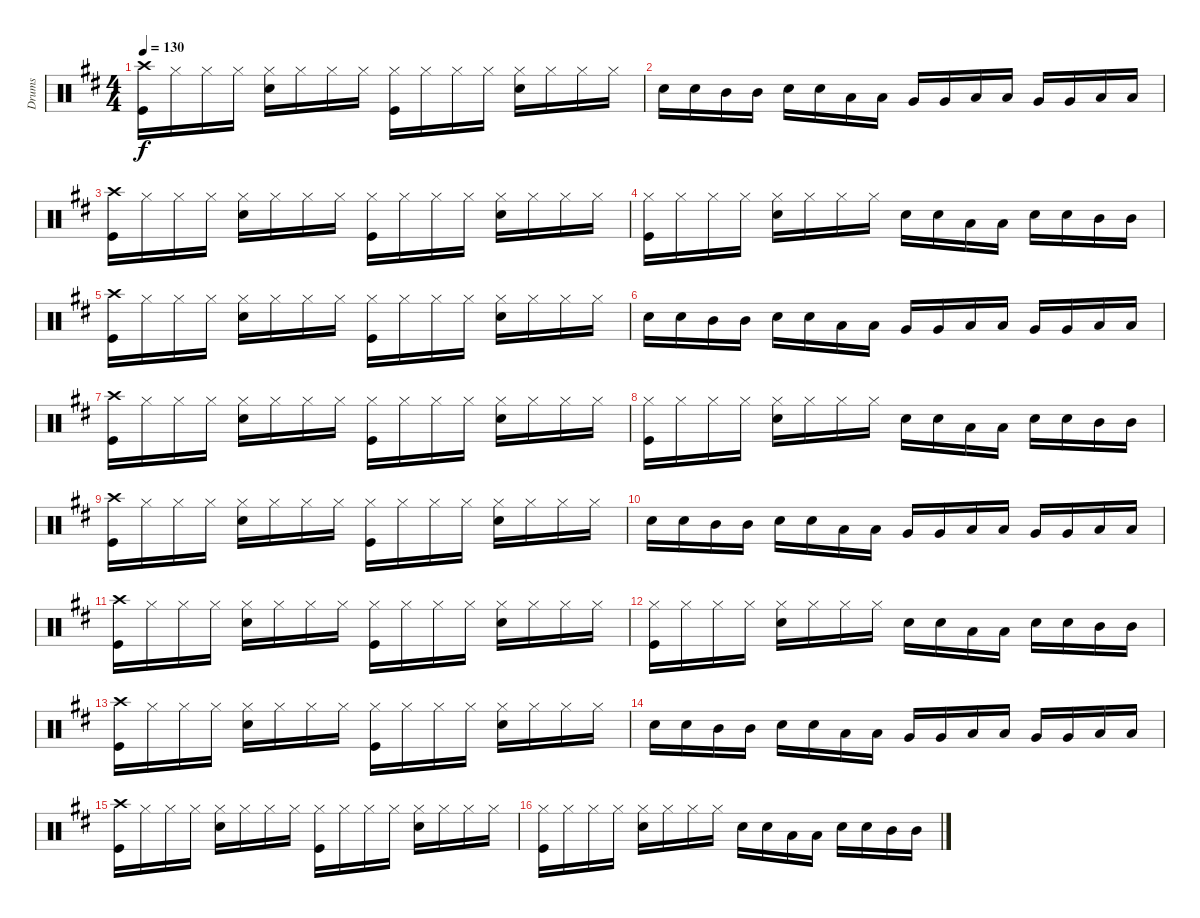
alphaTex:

\track ("Drums" "Drums") {instrument percussion}
\staff {score}
\articulation defaults
\ts (4 4)
\tempo 130
\clef neutral
\ks d
("Crash high (hit)" "Kick (hit)").16{dy f} "Hi-Hat (closed)".16 "Hi-Hat (closed)".16 "Hi-Hat (closed)".16 ("Hi-Hat (closed)" "Snare (hit) 2").16 "Hi-Hat (closed)".16 "Hi-Hat (closed)".16 "Hi-Hat (closed)".16 ("Hi-Hat (closed)" "Kick (hit)").16 "Hi-Hat (closed)".16 "Hi-Hat (closed)".16 "Hi-Hat (closed)".16 ("Hi-Hat (closed)" "Snare (hit) 2").16 "Hi-Hat (closed)".16 "Hi-Hat (closed)".16 "Hi-Hat (closed)".16 |
"Snare (hit) 2".16 "Snare (hit) 2".16 "Mid Tom (hit)".16 "Mid Tom (hit)".16 "Snare (hit) 2".16 "Snare (hit) 2".16 "Low Tom (hit)".16 "Low Tom (hit)".16 "Very Low Tom (hit)".16 "Very Low Tom (hit)".16 "Low Floor Tom (hit)".16 "Low Floor Tom (hit)".16 "Very Low Tom (hit)".16 "Very Low Tom (hit)".16 "Low Floor Tom (hit)".16 "Low Floor Tom (hit)".16 |
("Crash high (hit)" "Kick (hit)").16 "Hi-Hat (closed)".16 "Hi-Hat (closed)".16 "Hi-Hat (closed)".16 ("Hi-Hat (closed)" "Snare (hit) 2").16 "Hi-Hat (closed)".16 "Hi-Hat (closed)".16 "Hi-Hat (closed)".16 ("Hi-Hat (closed)" "Kick (hit)").16 "Hi-Hat (closed)".16 "Hi-Hat (closed)".16 "Hi-Hat (closed)".16 ("Hi-Hat (closed)" "Snare (hit) 2").16 "Hi-Hat (closed)".16 "Hi-Hat (closed)".16 "Hi-Hat (closed)".16 |
("Hi-Hat (closed)" "Kick (hit)").16 "Hi-Hat (closed)".16 "Hi-Hat (closed)".16 "Hi-Hat (closed)".16 ("Hi-Hat (closed)" "Snare (hit) 2").16 "Hi-Hat (closed)".16 "Hi-Hat (closed)".16 "Hi-Hat (closed)".16 "Snare (hit) 2".16 "Snare (hit) 2".16 "Low Tom (hit)".16 "Low Tom (hit)".16 "Snare (hit) 2".16 "Snare (hit) 2".16 "Mid Tom (hit)".16 "Mid Tom (hit)".16 |
("Crash high (hit)" "Kick (hit)").16 "Hi-Hat (closed)".16 "Hi-Hat (closed)".16 "Hi-Hat (closed)".16 ("Hi-Hat (closed)" "Snare (hit) 2").16 "Hi-Hat (closed)".16 "Hi-Hat (closed)".16 "Hi-Hat (closed)".16 ("Hi-Hat (closed)" "Kick (hit)").16 "Hi-Hat (closed)".16 "Hi-Hat (closed)".16 "Hi-Hat (closed)".16 ("Hi-Hat (closed)" "Snare (hit) 2").16 "Hi-Hat (closed)".16 "Hi-Hat (closed)".16 "Hi-Hat (closed)".16 |
"Snare (hit) 2".16 "Snare (hit) 2".16 "Mid Tom (hit)".16 "Mid Tom (hit)".16 "Snare (hit) 2".16 "Snare (hit) 2".16 "Low Tom (hit)".16 "Low Tom (hit)".16 "Very Low Tom (hit)".16 "Very Low Tom (hit)".16 "Low Floor Tom (hit)".16 "Low Floor Tom (hit)".16 "Very Low Tom (hit)".16 "Very Low Tom (hit)".16 "Low Floor Tom (hit)".16 "Low Floor Tom (hit)".16 |
("Crash high (hit)" "Kick (hit)").16 "Hi-Hat (closed)".16 "Hi-Hat (closed)".16 "Hi-Hat (closed)".16 ("Hi-Hat (closed)" "Snare (hit) 2").16 "Hi-Hat (closed)".16 "Hi-Hat (closed)".16 "Hi-Hat (closed)".16 ("Hi-Hat (closed)" "Kick (hit)").16 "Hi-Hat (closed)".16 "Hi-Hat (closed)".16 "Hi-Hat (closed)".16 ("Hi-Hat (closed)" "Snare (hit) 2").16 "Hi-Hat (closed)".16 "Hi-Hat (closed)".16 "Hi-Hat (closed)".16 |
("Hi-Hat (closed)" "Kick (hit)").16 "Hi-Hat (closed)".16 "Hi-Hat (closed)".16 "Hi-Hat (closed)".16 ("Hi-Hat (closed)" "Snare (hit) 2").16 "Hi-Hat (closed)".16 "Hi-Hat (closed)".16 "Hi-Hat (closed)".16 "Snare (hit) 2".16 "Snare (hit) 2".16 "Low Tom (hit)".16 "Low Tom (hit)".16 "Snare (hit) 2".16 "Snare (hit) 2".16 "Mid Tom (hit)".16 "Mid Tom (hit)".16 |
("Crash high (hit)" "Kick (hit)").16 "Hi-Hat (closed)".16 "Hi-Hat (closed)".16 "Hi-Hat (closed)".16 ("Hi-Hat (closed)" "Snare (hit) 2").16 "Hi-Hat (closed)".16 "Hi-Hat (closed)".16 "Hi-Hat (closed)".16 ("Hi-Hat (closed)" "Kick (hit)").16 "Hi-Hat (closed)".16 "Hi-Hat (closed)".16 "Hi-Hat (closed)".16 ("Hi-Hat (closed)" "Snare (hit) 2").16 "Hi-Hat (closed)".16 "Hi-Hat (closed)".16 "Hi-Hat (closed)".16 |
"Snare (hit) 2".16 "Snare (hit) 2".16 "Mid Tom (hit)".16 "Mid Tom (hit)".16 "Snare (hit) 2".16 "Snare (hit) 2".16 "Low Tom (hit)".16 "Low Tom (hit)".16 "Very Low Tom (hit)".16 "Very Low Tom (hit)".16 "Low Floor Tom (hit)".16 "Low Floor Tom (hit)".16 "Very Low Tom (hit)".16 "Very Low Tom (hit)".16 "Low Floor Tom (hit)".16 "Low Floor Tom (hit)".16 |
("Crash high (hit)" "Kick (hit)").16 "Hi-Hat (closed)".16 "Hi-Hat (closed)".16 "Hi-Hat (closed)".16 ("Hi-Hat (closed)" "Snare (hit) 2").16 "Hi-Hat (closed)".16 "Hi-Hat (closed)".16 "Hi-Hat (closed)".16 ("Hi-Hat (closed)" "Kick (hit)").16 "Hi-Hat (closed)".16 "Hi-Hat (closed)".16 "Hi-Hat (closed)".16 ("Hi-Hat (closed)" "Snare (hit) 2").16 "Hi-Hat (closed)".16 "Hi-Hat (closed)".16 "Hi-Hat (closed)".16 |
("Hi-Hat (closed)" "Kick (hit)").16 "Hi-Hat (closed)".16 "Hi-Hat (closed)".16 "Hi-Hat (closed)".16 ("Hi-Hat (closed)" "Snare (hit) 2").16 "Hi-Hat (closed)".16 "Hi-Hat (closed)".16 "Hi-Hat (closed)".16 "Snare (hit) 2".16 "Snare (hit) 2".16 "Low Tom (hit)".16 "Low Tom (hit)".16 "Snare (hit) 2".16 "Snare (hit) 2".16 "Mid Tom (hit)".16 "Mid Tom (hit)".16 |
("Crash high (hit)" "Kick (hit)").16 "Hi-Hat (closed)".16 "Hi-Hat (closed)".16 "Hi-Hat (closed)".16 ("Hi-Hat (closed)" "Snare (hit) 2").16 "Hi-Hat (closed)".16 "Hi-Hat (closed)".16 "Hi-Hat (closed)".16 ("Hi-Hat (closed)" "Kick (hit)").16 "Hi-Hat (closed)".16 "Hi-Hat (closed)".16 "Hi-Hat (closed)".16 ("Hi-Hat (closed)" "Snare (hit) 2").16 "Hi-Hat (closed)".16 "Hi-Hat (closed)".16 "Hi-Hat (closed)".16 |
"Snare (hit) 2".16 "Snare (hit) 2".16 "Mid Tom (hit)".16 "Mid Tom (hit)".16 "Snare (hit) 2".16 "Snare (hit) 2".16 "Low Tom (hit)".16 "Low Tom (hit)".16 "Very Low Tom (hit)".16 "Very Low Tom (hit)".16 "Low Floor Tom (hit)".16 "Low Floor Tom (hit)".16 "Very Low Tom (hit)".16 "Very Low Tom (hit)".16 "Low Floor Tom (hit)".16 "Low Floor Tom (hit)".16 |
("Crash high (hit)" "Kick (hit)").16 "Hi-Hat (closed)".16 "Hi-Hat (closed)".16 "Hi-Hat (closed)".16 ("Hi-Hat (closed)" "Snare (hit) 2").16 "Hi-Hat (closed)".16 "Hi-Hat (closed)".16 "Hi-Hat (closed)".16 ("Hi-Hat (closed)" "Kick (hit)").16 "Hi-Hat (closed)".16 "Hi-Hat (closed)".16 "Hi-Hat (closed)".16 ("Hi-Hat (closed)" "Snare (hit) 2").16 "Hi-Hat (closed)".16 "Hi-Hat (closed)".16 "Hi-Hat (closed)".16 |
("Hi-Hat (closed)" "Kick (hit)").16 "Hi-Hat (closed)".16 "Hi-Hat (closed)".16 "Hi-Hat (closed)".16 ("Hi-Hat (closed)" "Snare (hit) 2").16 "Hi-Hat (closed)".16 "Hi-Hat (closed)".16 "Hi-Hat (closed)".16 "Snare (hit) 2".16 "Snare (hit) 2".16 "Low Tom (hit)".16 "Low Tom (hit)".16 "Snare (hit) 2".16 "Snare (hit) 2".16 "Mid Tom (hit)".16 "Mid Tom (hit)".16
